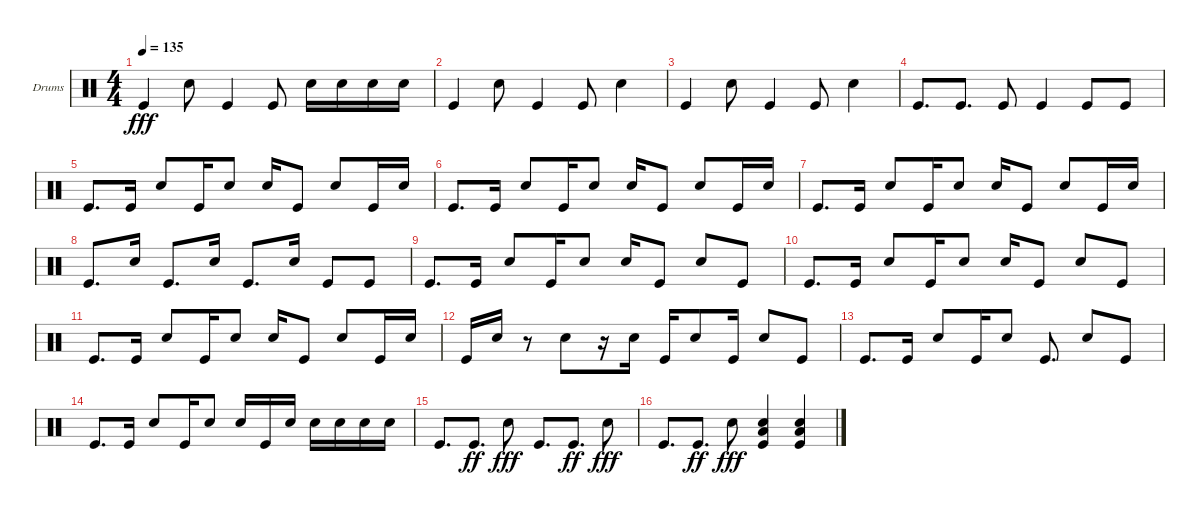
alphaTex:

\defaultSystemsLayout 4
\bracketExtendMode groupsimilarinstruments
\firstSystemTrackNameOrientation horizontal
\otherSystemsTrackNameOrientation horizontal
\track ("Helders" "Drums") {instrument percussion}
\staff {score}
\articulation defaults
\ts (4 4)
\tempo 135
\clef neutral
\ks c "Kick (hit)".4{dy fff} "Snare (hit) 2".8 "Kick (hit)".4 "Kick (hit)".8 "Snare (hit) 2".16 "Snare (hit) 2".16 "Snare (hit) 2".16 "Snare (hit) 2".16
|
"Kick (hit)".4 "Snare (hit) 2".8 "Kick (hit)".4 "Kick (hit)".8 "Snare (hit) 2".4 |
"Kick (hit)".4 "Snare (hit) 2".8 "Kick (hit)".4 "Kick (hit)".8 "Snare (hit) 2".4 |
"Kick (hit)".8{d} "Kick (hit)".8{d} "Kick (hit)".8 "Kick (hit)".4 "Kick (hit)".8 "Kick (hit)".8 |
"Kick (hit)".8{d} "Kick (hit)".16 "Snare (hit) 2".8 "Kick (hit)".16 "Snare (hit) 2".8 "Snare (hit) 2".16 "Kick (hit)".8 "Snare (hit) 2".8 "Kick (hit)".16 "Snare (hit) 2".16 |
"Kick (hit)".8{d} "Kick (hit)".16 "Snare (hit) 2".8 "Kick (hit)".16 "Snare (hit) 2".8 "Snare (hit) 2".16 "Kick (hit)".8 "Snare (hit) 2".8 "Kick (hit)".16 "Snare (hit) 2".16 |
"Kick (hit)".8{d} "Kick (hit)".16 "Snare (hit) 2".8 "Kick (hit)".16 "Snare (hit) 2".8 "Snare (hit) 2".16 "Kick (hit)".8 "Snare (hit) 2".8 "Kick (hit)".16 "Snare (hit) 2".16 |
"Kick (hit)".8{d} "Snare (hit) 2".16 "Kick (hit)".8{d} "Snare (hit) 2".16 "Kick (hit)".8{d} "Snare (hit) 2".16 "Kick (hit)".8 "Kick (hit)".8 |
"Kick (hit)".8{d} "Kick (hit)".16 "Snare (hit) 2".8 "Kick (hit)".16 "Snare (hit) 2".8 "Snare (hit) 2".16 "Kick (hit)".8 "Snare (hit) 2".8 "Kick (hit)".8 |
"Kick (hit)".8{d} "Kick (hit)".16 "Snare (hit) 2".8 "Kick (hit)".16 "Snare (hit) 2".8 "Snare (hit) 2".16 "Kick (hit)".8 "Snare (hit) 2".8 "Kick (hit)".8 |
"Kick (hit)".8{d} "Kick (hit)".16 "Snare (hit) 2".8 "Kick (hit)".16 "Snare (hit) 2".8 "Snare (hit) 2".16 "Kick (hit)".8 "Snare (hit) 2".8 "Kick (hit)".16 "Snare (hit) 2".16 |
"Kick (hit)".16 "Snare (hit) 2".16 r.8 "Snare (hit) 2".8 r.16 "Snare (hit) 2".16 "Kick (hit)".16 "Snare (hit) 2".8 "Kick (hit)".16 "Snare (hit) 2".8 "Kick (hit)".8 |
"Kick (hit)".8{d} "Kick (hit)".16 "Snare (hit) 2".8 "Kick (hit)".16 "Snare (hit) 2".8 "Kick (hit)".8{d} "Snare (hit) 2".8 "Kick (hit)".8 |
"Kick (hit)".8{d} "Kick (hit)".16 "Snare (hit) 2".8 "Kick (hit)".16 "Snare (hit) 2".8 "Snare (hit) 2".16 "Kick (hit)".16 "Snare (hit) 2".16 "Snare (hit) 2".16 "Snare (hit) 2".16 "Snare (hit) 2".16 "Snare (hit) 2".16 |
"Kick (hit)".8{d} "Kick (hit)".8{d dy ff} "Snare (hit) 2".8{dy fff} "Kick (hit)".8{d} "Kick (hit)".8{d dy ff} "Snare (hit) 2".8{dy fff} |
"Kick (hit)".8{d} "Kick (hit)".8{d dy ff} "Snare (hit) 2".8{dy fff} ("Kick (hit)" "Snare (hit) 2" "Low Tom (hit)").4 ("Snare (hit) 2" "Low Tom (hit)" "Kick (hit)").4
